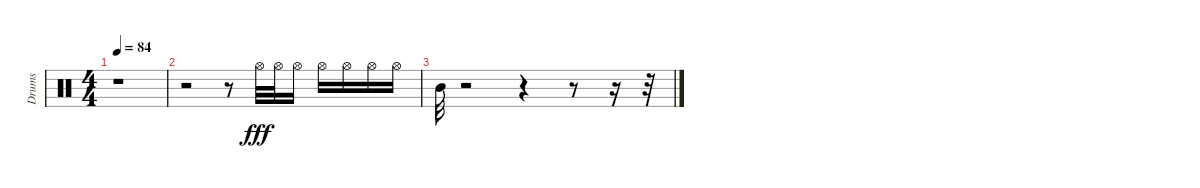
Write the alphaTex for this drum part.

\track ("Drums" "Drums") {instrument percussion}
\staff {score}
\articulation defaults
\ts (4 4)
\tempo 84
\clef neutral
\ks c
r.1{dy fff} |
r.2 r.8 "Hi-Hat (open)".32{volume 7} "Hi-Hat (open)".32 "Hi-Hat (open)".16 "Hi-Hat (open)".16 "Hi-Hat (open)".16 "Hi-Hat (open)".16 "Hi-Hat (open)".16 |
"Mid Tom (hit)".32 r.2 r.4 r.8 r.16 r.32
